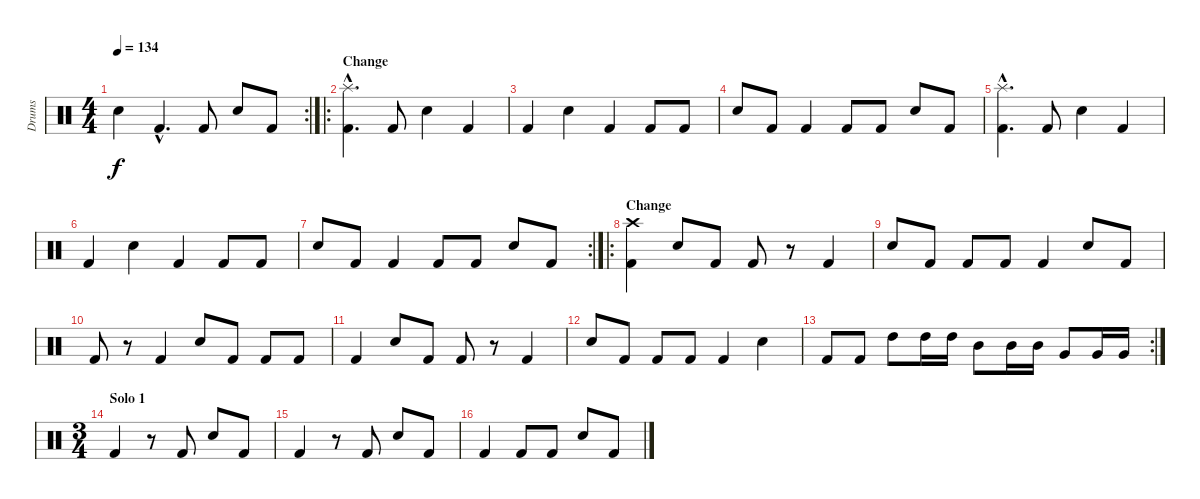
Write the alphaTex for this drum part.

\track ("Drums" "Drums") {instrument percussion}
\staff {score}
\articulation defaults
\rc 2
\ts (4 4)
\tempo 134
\clef neutral
\ks c "Snare (hit) 2".4{dy f} "Kick (hit) 2"{hac}.4{d} "Kick (hit) 2".8 "Snare (hit) 2".8 "Kick (hit) 2".8
|
\ro
\section ("" "Change")
("Kick (hit) 2"{hac} "Splash (hit)"{hac}).4{d} "Kick (hit) 2".8 "Snare (hit) 2".4 "Kick (hit) 2".4 |
"Kick (hit) 2".4 "Snare (hit) 2".4 "Kick (hit) 2".4 "Kick (hit) 2".8 "Kick (hit) 2".8 |
"Snare (hit) 2".8 "Kick (hit) 2".8 "Kick (hit) 2".4 "Kick (hit) 2".8 "Kick (hit) 2".8 "Snare (hit) 2".8 "Kick (hit) 2".8 |
("Kick (hit) 2"{hac} "Splash (hit)"{hac}).4{d} "Kick (hit) 2".8 "Snare (hit) 2".4 "Kick (hit) 2".4 |
"Kick (hit) 2".4 "Snare (hit) 2".4 "Kick (hit) 2".4 "Kick (hit) 2".8 "Kick (hit) 2".8 |
\rc 2 "Snare (hit) 2".8 "Kick (hit) 2".8 "Kick (hit) 2".4 "Kick (hit) 2".8 "Kick (hit) 2".8 "Snare (hit) 2".8 "Kick (hit) 2".8
|
\ro
\section ("" "Change")
("Kick (hit) 2" "Crash high (hit)").4 "Snare (hit) 2".8 "Kick (hit) 2".8 "Kick (hit) 2".8 r.8 "Kick (hit) 2".4 |
"Snare (hit) 2".8 "Kick (hit) 2".8 "Kick (hit) 2".8 "Kick (hit) 2".8 "Kick (hit) 2".4 "Snare (hit) 2".8 "Kick (hit) 2".8 |
"Kick (hit) 2".8 r.8 "Kick (hit) 2".4 "Snare (hit) 2".8 "Kick (hit) 2".8 "Kick (hit) 2".8 "Kick (hit) 2".8 |
"Kick (hit) 2".4 "Snare (hit) 2".8 "Kick (hit) 2".8 "Kick (hit) 2".8 r.8 "Kick (hit) 2".4 |
"Snare (hit) 2".8 "Kick (hit) 2".8 "Kick (hit) 2".8 "Kick (hit) 2".8 "Kick (hit) 2".4 "Snare (hit) 2".4 |
\rc 2 "Kick (hit) 2".8 "Kick (hit) 2".8 "High Tom (hit)".8 "High Tom (hit)".16 "High Tom (hit)".16 "Mid Tom (hit)".8 "Mid Tom (hit)".16 "Mid Tom (hit)".16 "Very Low Tom (hit)".8 "Very Low Tom (hit)".16 "Very Low Tom (hit)".16
|
\ts (3 4)
\section ("" "Solo 1")
"Kick (hit) 2".4 r.8 "Kick (hit) 2".8 "Snare (hit) 2".8 "Kick (hit) 2".8 |
"Kick (hit) 2".4 r.8 "Kick (hit) 2".8 "Snare (hit) 2".8 "Kick (hit) 2".8 |
"Kick (hit) 2".4 "Kick (hit) 2".8 "Kick (hit) 2".8 "Snare (hit) 2".8 "Kick (hit) 2".8
